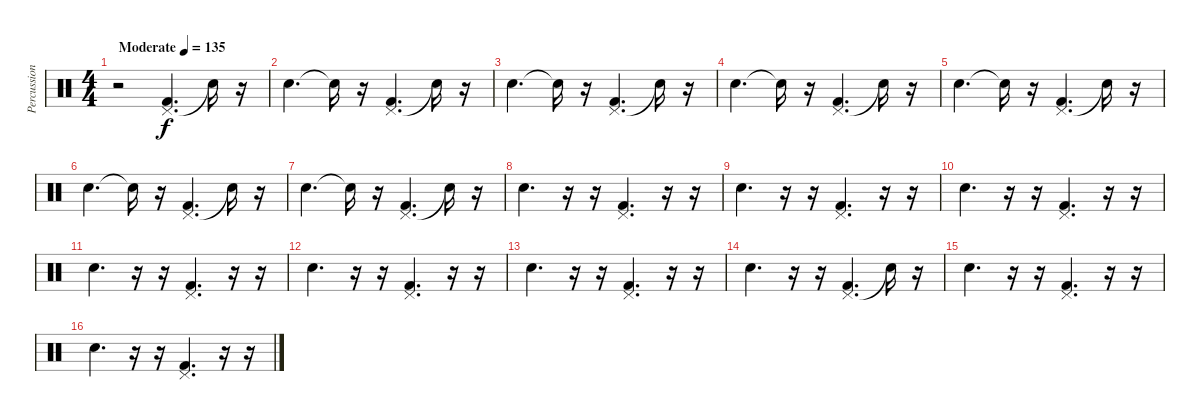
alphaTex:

\track ("Percussion" "Percussion") {instrument percussion}
\staff {score}
\articulation defaults
\ts (4 4)
\tempo (135 "Moderate")
\clef neutral
\ks c
r.2{dy f} ("Pedal Hi-Hat (hit)" "Kick (hit) 2").4{d} "Snare (hit)"{t}.16 r.16 |
"Electric Snare (hit)".4{d} "Snare (hit)"{t}.16 r.16 ("Pedal Hi-Hat (hit)" "Kick (hit) 2").4{d} "Snare (hit)"{t}.16 r.16 |
"Electric Snare (hit)".4{d} "Snare (hit)"{t}.16 r.16 ("Pedal Hi-Hat (hit)" "Kick (hit) 2").4{d} "Snare (hit)"{t}.16 r.16 |
"Electric Snare (hit)".4{d} "Snare (hit)"{t}.16 r.16 ("Pedal Hi-Hat (hit)" "Kick (hit) 2").4{d} "Snare (hit)"{t}.16 r.16 |
"Electric Snare (hit)".4{d} "Snare (hit)"{t}.16 r.16 ("Pedal Hi-Hat (hit)" "Kick (hit) 2").4{d} "Snare (hit)"{t}.16 r.16 |
"Electric Snare (hit)".4{d} "Snare (hit)"{t}.16 r.16 ("Pedal Hi-Hat (hit)" "Kick (hit) 2").4{d} "Snare (hit)"{t}.16 r.16 |
"Electric Snare (hit)".4{d} "Snare (hit)"{t}.16 r.16 ("Pedal Hi-Hat (hit)" "Kick (hit) 2").4{d} "Snare (hit)"{t}.16 r.16 |
"Electric Snare (hit)".4{d} r.16 r.16 ("Pedal Hi-Hat (hit)" "Kick (hit) 2").4{d} r.16 r.16 |
"Electric Snare (hit)".4{d} r.16 r.16 ("Pedal Hi-Hat (hit)" "Kick (hit) 2").4{d} r.16 r.16 |
"Electric Snare (hit)".4{d} r.16 r.16 ("Pedal Hi-Hat (hit)" "Kick (hit) 2").4{d} r.16 r.16 |
"Electric Snare (hit)".4{d} r.16 r.16 ("Pedal Hi-Hat (hit)" "Kick (hit) 2").4{d} r.16 r.16 |
"Electric Snare (hit)".4{d} r.16 r.16 ("Pedal Hi-Hat (hit)" "Kick (hit) 2").4{d} r.16 r.16 |
"Electric Snare (hit)".4{d} r.16 r.16 ("Pedal Hi-Hat (hit)" "Kick (hit) 2").4{d} r.16 r.16 |
"Electric Snare (hit)".4{d} r.16 r.16 ("Pedal Hi-Hat (hit)" "Kick (hit) 2").4{d} "Snare (hit)"{t}.16 r.16 |
"Electric Snare (hit)".4{d} r.16 r.16 ("Pedal Hi-Hat (hit)" "Kick (hit) 2").4{d} r.16 r.16 |
"Electric Snare (hit)".4{d} r.16 r.16 ("Pedal Hi-Hat (hit)" "Kick (hit) 2").4{d} r.16 r.16
